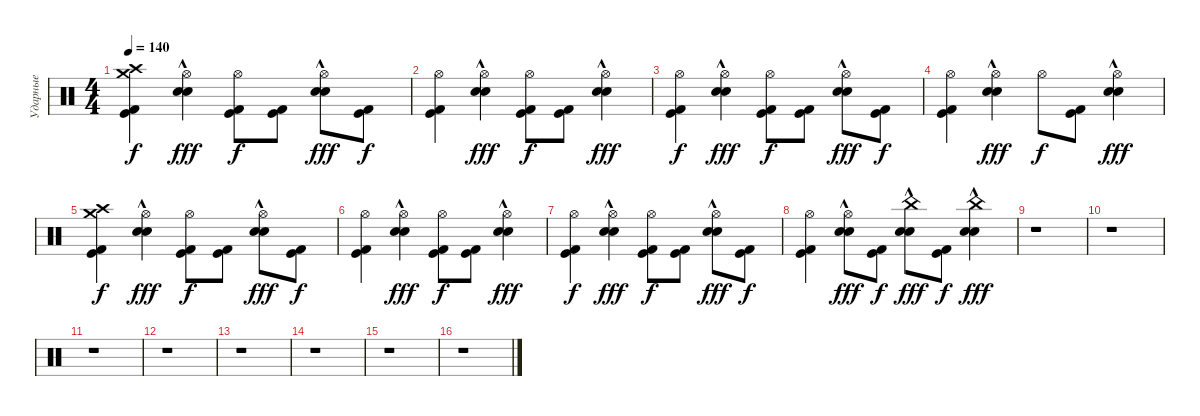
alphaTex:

\track ("Ударные" "Ударные") {instrument percussion}
\staff {score}
\articulation defaults
\ts (4 4)
\tempo 140
\clef neutral
\ks c
("Crash high (hit)" "Kick (hit)" "Kick (hit) 2" "Crash medium (hit)").4{dy f} ("Hi-Hat (open)" "Snare (hit) 2"{hac} "Electric Snare (hit)"{hac}).4{dy fff} ("Hi-Hat (open)" "Kick (hit)" "Kick (hit) 2").8{dy f} ("Kick (hit)" "Kick (hit) 2").8 ("Hi-Hat (open)" "Snare (hit) 2"{hac} "Electric Snare (hit)"{hac}).8{dy fff} ("Kick (hit)" "Kick (hit) 2").8{dy f} |
("Hi-Hat (open)" "Kick (hit)" "Kick (hit) 2").4 ("Hi-Hat (open)" "Snare (hit) 2"{hac} "Electric Snare (hit)"{hac}).4{dy fff} ("Hi-Hat (open)" "Kick (hit)" "Kick (hit) 2").8{dy f} ("Kick (hit)" "Kick (hit) 2").8 ("Hi-Hat (open)" "Snare (hit) 2"{hac} "Electric Snare (hit)"{hac}).4{dy fff} |
("Hi-Hat (open)" "Kick (hit)" "Kick (hit) 2").4{dy f} ("Hi-Hat (open)" "Snare (hit) 2"{hac} "Electric Snare (hit)"{hac}).4{dy fff} ("Hi-Hat (open)" "Kick (hit)" "Kick (hit) 2").8{dy f} ("Kick (hit)" "Kick (hit) 2").8 ("Hi-Hat (open)" "Snare (hit) 2"{hac} "Electric Snare (hit)"{hac}).8{dy fff} ("Kick (hit)" "Kick (hit) 2").8{dy f} |
("Hi-Hat (open)" "Kick (hit)" "Kick (hit) 2").4 ("Hi-Hat (open)" "Snare (hit) 2"{hac} "Electric Snare (hit)"{hac}).4{dy fff} "Hi-Hat (open)".8{dy f} ("Kick (hit)" "Kick (hit) 2").8 ("Hi-Hat (open)" "Snare (hit) 2"{hac} "Electric Snare (hit)"{hac}).4{dy fff} |
("Crash high (hit)" "Kick (hit)" "Kick (hit) 2" "Crash medium (hit)").4{dy f} ("Hi-Hat (open)" "Snare (hit) 2"{hac} "Electric Snare (hit)"{hac}).4{dy fff} ("Hi-Hat (open)" "Kick (hit)" "Kick (hit) 2").8{dy f} ("Kick (hit)" "Kick (hit) 2").8 ("Hi-Hat (open)" "Snare (hit) 2"{hac} "Electric Snare (hit)"{hac}).8{dy fff} ("Kick (hit)" "Kick (hit) 2").8{dy f} |
("Hi-Hat (open)" "Kick (hit)" "Kick (hit) 2").4 ("Hi-Hat (open)" "Snare (hit) 2"{hac} "Electric Snare (hit)"{hac}).4{dy fff} ("Hi-Hat (open)" "Kick (hit)" "Kick (hit) 2").8{dy f} ("Kick (hit)" "Kick (hit) 2").8 ("Hi-Hat (open)" "Snare (hit) 2"{hac} "Electric Snare (hit)"{hac}).4{dy fff} |
("Hi-Hat (open)" "Kick (hit)" "Kick (hit) 2").4{dy f} ("Hi-Hat (open)" "Snare (hit) 2"{hac} "Electric Snare (hit)"{hac}).4{dy fff} ("Hi-Hat (open)" "Kick (hit)" "Kick (hit) 2").8{dy f} ("Kick (hit)" "Kick (hit) 2").8 ("Hi-Hat (open)" "Snare (hit) 2"{hac} "Electric Snare (hit)"{hac}).8{dy fff} ("Kick (hit)" "Kick (hit) 2").8{dy f} |
("Hi-Hat (open)" "Kick (hit)" "Kick (hit) 2").4 ("Hi-Hat (open)" "Snare (hit) 2"{hac} "Electric Snare (hit)"{hac}).8{dy fff} ("Kick (hit)" "Kick (hit) 2").8{dy f} ("China (hit)" "Snare (hit) 2"{hac} "Electric Snare (hit)"{hac}).8{dy fff} ("Kick (hit)" "Kick (hit) 2").8{dy f} ("China (hit)" "Snare (hit) 2"{hac} "Electric Snare (hit)"{hac}).4{dy fff} |
r.1 |
r.1 |
r.1 |
r.1 |
r.1 |
r.1 |
r.1 |
r.1
